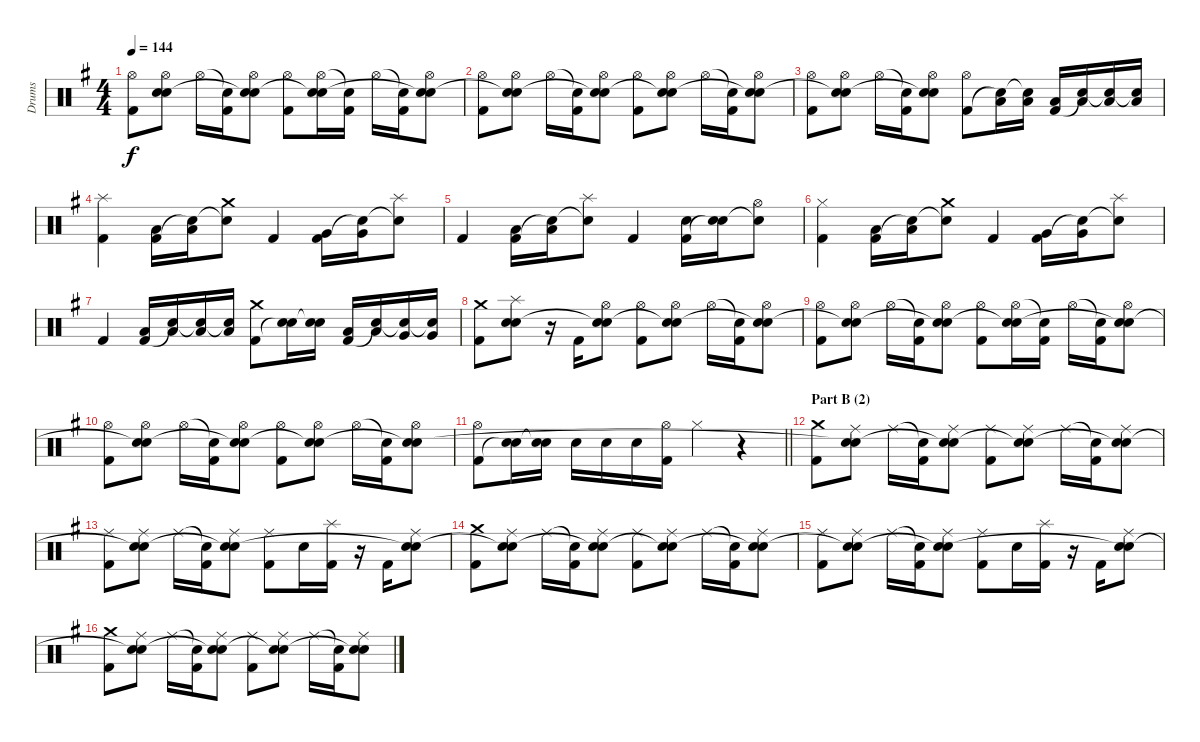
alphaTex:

\track ("Drums" "Drums") {instrument percussion}
\staff {score}
\articulation defaults
\ts (4 4)
\tempo 144
\clef neutral
\ks g
("Hi-Hat (open)" "Kick (hit) 2").8{dy f} ("Hi-Hat (open)" "Electric Snare (hit)" "Snare (hit)"{t}).8 "Hi-Hat (open)".16 ("Snare (hit)"{t} "Kick (hit) 2").16 ("Hi-Hat (open)" "Electric Snare (hit)" "Snare (hit)"{t}).8 ("Hi-Hat (open)" "Kick (hit) 2").8 ("Hi-Hat (open)" "Electric Snare (hit)" "Snare (hit)"{t}).16 ("Snare (hit)"{t} "Kick (hit) 2").16 "Hi-Hat (open)".16 ("Snare (hit)"{t} "Kick (hit) 2").16 ("Hi-Hat (open)" "Electric Snare (hit)" "Snare (hit)"{t}).8 |
("Hi-Hat (open)" "Kick (hit) 2").8 ("Hi-Hat (open)" "Electric Snare (hit)" "Snare (hit)"{t}).8 "Hi-Hat (open)".16 ("Snare (hit)"{t} "Kick (hit) 2").16 ("Hi-Hat (open)" "Electric Snare (hit)" "Snare (hit)"{t}).8 ("Hi-Hat (open)" "Kick (hit) 2").8 ("Hi-Hat (open)" "Electric Snare (hit)" "Snare (hit)"{t}).8 "Hi-Hat (open)".16 ("Snare (hit)"{t} "Kick (hit) 2").16 ("Hi-Hat (open)" "Electric Snare (hit)" "Snare (hit)"{t}).8 |
("Hi-Hat (open)" "Kick (hit) 2").8 ("Hi-Hat (open)" "Electric Snare (hit)" "Snare (hit)"{t}).8 "Hi-Hat (open)".16 ("Snare (hit)"{t} "Kick (hit) 2").16 ("Hi-Hat (open)" "Electric Snare (hit)" "Snare (hit)"{t}).8 ("Hi-Hat (open)" "Kick (hit) 2").8 ("Low Tom (hit)" "Snare (hit)"{t}).16 ("Low Tom (hit)" "Snare (hit)"{t}).16 ("Low Tom (hit)" "Kick (hit) 2").16 ("Low Tom (hit)" "Snare (hit)"{t}).16 ("Low Tom (hit)" "Snare (hit)"{t}).16 ("Low Tom (hit)" "Snare (hit)"{t}).16 |
("Splash (hit)" "Kick (hit) 2").4 ("Low Tom (hit)" "Kick (hit) 2").16 ("Low Tom (hit)" "Snare (hit)"{t}).16 ("Crash medium (hit)" "Snare (hit)"{t}).8 "Kick (hit) 2".4 ("Very Low Tom (hit)" "Kick (hit) 2").16 ("Very Low Tom (hit)" "Snare (hit)"{t}).16 ("Splash (hit)" "Snare (hit)"{t}).8 |
"Kick (hit) 2".4 ("Low Floor Tom (hit)" "Kick (hit) 2").16 ("Low Floor Tom (hit)" "Snare (hit)"{t}).16 ("Splash (hit)" "Snare (hit)"{t}).8 "Kick (hit) 2".4 ("Electric Snare (hit)" "Kick (hit) 2").16 ("Electric Snare (hit)" "Snare (hit)"{t}).16 ("Hi-Hat (open)" "Snare (hit)"{t}).8 |
("Hi-Hat (closed)" "Kick (hit) 2").4 ("Low Tom (hit)" "Kick (hit) 2").16 ("Low Tom (hit)" "Snare (hit)"{t}).16 ("Crash medium (hit)" "Snare (hit)"{t}).8 "Kick (hit) 2".4 ("Very Low Tom (hit)" "Kick (hit) 2").16 ("Very Low Tom (hit)" "Snare (hit)"{t}).16 ("Splash (hit)" "Snare (hit)"{t}).8 |
"Kick (hit) 2".4 ("Low Floor Tom (hit)" "Kick (hit) 2").16 ("Low Floor Tom (hit)" "Snare (hit)"{t}).16 ("Low Floor Tom (hit)" "Snare (hit)"{t}).16 ("Low Floor Tom (hit)" "Snare (hit)"{t}).16 ("Crash medium (hit)" "Kick (hit) 2").8 ("Electric Snare (hit)" "Snare (hit)"{t}).16 ("Electric Snare (hit)" "Snare (hit)"{t}).16 ("Low Tom (hit)" "Kick (hit) 2").16 ("Low Tom (hit)" "Snare (hit)"{t}).16 ("Very Low Tom (hit)" "Snare (hit)"{t}).16 ("Very Low Tom (hit)" "Snare (hit)"{t}).16 |
("Crash medium (hit)" "Kick (hit) 2").8 ("Splash (hit)" "Electric Snare (hit)" "Snare (hit)").8 r.16 "Kick (hit) 2".16 ("Hi-Hat (open)" "Electric Snare (hit)" "Snare (hit)"{t}).8 ("Hi-Hat (open)" "Kick (hit) 2").8 ("Hi-Hat (open)" "Electric Snare (hit)" "Snare (hit)"{t}).8 "Hi-Hat (open)".16 ("Snare (hit)"{t} "Kick (hit) 2").16 ("Hi-Hat (open)" "Electric Snare (hit)" "Snare (hit)"{t}).8 |
("Hi-Hat (open)" "Kick (hit) 2").8 ("Hi-Hat (open)" "Electric Snare (hit)" "Snare (hit)"{t}).8 "Hi-Hat (open)".16 ("Snare (hit)"{t} "Kick (hit) 2").16 ("Hi-Hat (open)" "Electric Snare (hit)" "Snare (hit)"{t}).8 ("Hi-Hat (open)" "Kick (hit) 2").8 ("Hi-Hat (open)" "Electric Snare (hit)" "Snare (hit)"{t}).16 ("Snare (hit)"{t} "Kick (hit) 2").16 "Hi-Hat (open)".16 ("Snare (hit)"{t} "Kick (hit) 2").16 ("Hi-Hat (open)" "Electric Snare (hit)" "Snare (hit)"{t}).8 |
("Hi-Hat (open)" "Kick (hit) 2").8 ("Hi-Hat (open)" "Electric Snare (hit)" "Snare (hit)"{t}).8 "Hi-Hat (open)".16 ("Snare (hit)"{t} "Kick (hit) 2").16 ("Hi-Hat (open)" "Electric Snare (hit)" "Snare (hit)"{t}).8 ("Hi-Hat (open)" "Kick (hit) 2").8 ("Hi-Hat (open)" "Electric Snare (hit)" "Snare (hit)"{t}).8 "Hi-Hat (open)".16 ("Snare (hit)"{t} "Kick (hit) 2").16 ("Hi-Hat (open)" "Electric Snare (hit)" "Snare (hit)"{t}).8 |
\barLineRight lightlight
("Hi-Hat (open)" "Kick (hit) 2").8 ("Electric Snare (hit)" "Snare (hit)"{t}).16 ("Electric Snare (hit)" "Snare (hit)"{t}).16 "Electric Snare (hit)".16 "Electric Snare (hit)".16 "Electric Snare (hit)".16 ("Hi-Hat (open)" "Kick (hit) 2").16 "Hi-Hat (closed)".4 r.4 |
\section ("" "Part B (2)")
("Crash medium (hit)" "Kick (hit) 2").8 ("Ride (middle)" "Electric Snare (hit)" "Snare (hit)"{t}).8 "Ride (middle)".16 ("Snare (hit)"{t} "Kick (hit) 2").16 ("Ride (middle)" "Electric Snare (hit)" "Snare (hit)"{t}).8 ("Ride (middle)" "Kick (hit) 2").8 ("Ride (middle)" "Electric Snare (hit)" "Snare (hit)"{t}).8 "Ride (middle)".16 ("Snare (hit)"{t} "Kick (hit) 2").16 ("Ride (middle)" "Electric Snare (hit)" "Snare (hit)"{t}).8 |
("Ride (middle)" "Kick (hit) 2").8 ("Ride (middle)" "Electric Snare (hit)" "Snare (hit)"{t}).8 "Ride (middle)".16 ("Snare (hit)"{t} "Kick (hit) 2").16 ("Ride (middle)" "Electric Snare (hit)" "Snare (hit)"{t}).8 ("Ride (middle)" "Kick (hit) 2").8 "Electric Snare (hit)".16 ("Splash (hit)" "Kick (hit) 2").16 r.16 "Kick (hit) 2".16 ("Ride (middle)" "Electric Snare (hit)" "Snare (hit)"{t}).8 |
("Crash medium (hit)" "Kick (hit) 2").8 ("Ride (middle)" "Electric Snare (hit)" "Snare (hit)"{t}).8 "Ride (middle)".16 ("Snare (hit)"{t} "Kick (hit) 2").16 ("Ride (middle)" "Electric Snare (hit)" "Snare (hit)"{t}).8 ("Ride (middle)" "Kick (hit) 2").8 ("Ride (middle)" "Electric Snare (hit)" "Snare (hit)"{t}).8 "Ride (middle)".16 ("Snare (hit)"{t} "Kick (hit) 2").16 ("Ride (middle)" "Electric Snare (hit)" "Snare (hit)"{t}).8 |
("Ride (middle)" "Kick (hit) 2").8 ("Ride (middle)" "Electric Snare (hit)" "Snare (hit)"{t}).8 "Ride (middle)".16 ("Snare (hit)"{t} "Kick (hit) 2").16 ("Ride (middle)" "Electric Snare (hit)" "Snare (hit)"{t}).8 ("Ride (middle)" "Kick (hit) 2").8 "Electric Snare (hit)".16 ("Splash (hit)" "Kick (hit) 2").16 r.16 "Kick (hit) 2".16 ("Ride (middle)" "Electric Snare (hit)" "Snare (hit)"{t}).8 |
("Crash medium (hit)" "Kick (hit) 2").8 ("Ride (middle)" "Electric Snare (hit)" "Snare (hit)"{t}).8 "Ride (middle)".16 ("Snare (hit)"{t} "Kick (hit) 2").16 ("Ride (middle)" "Electric Snare (hit)" "Snare (hit)"{t}).8 ("Ride (middle)" "Kick (hit) 2").8 ("Ride (middle)" "Electric Snare (hit)" "Snare (hit)"{t}).8 "Ride (middle)".16 ("Snare (hit)"{t} "Kick (hit) 2").16 ("Ride (middle)" "Electric Snare (hit)" "Snare (hit)"{t}).8
